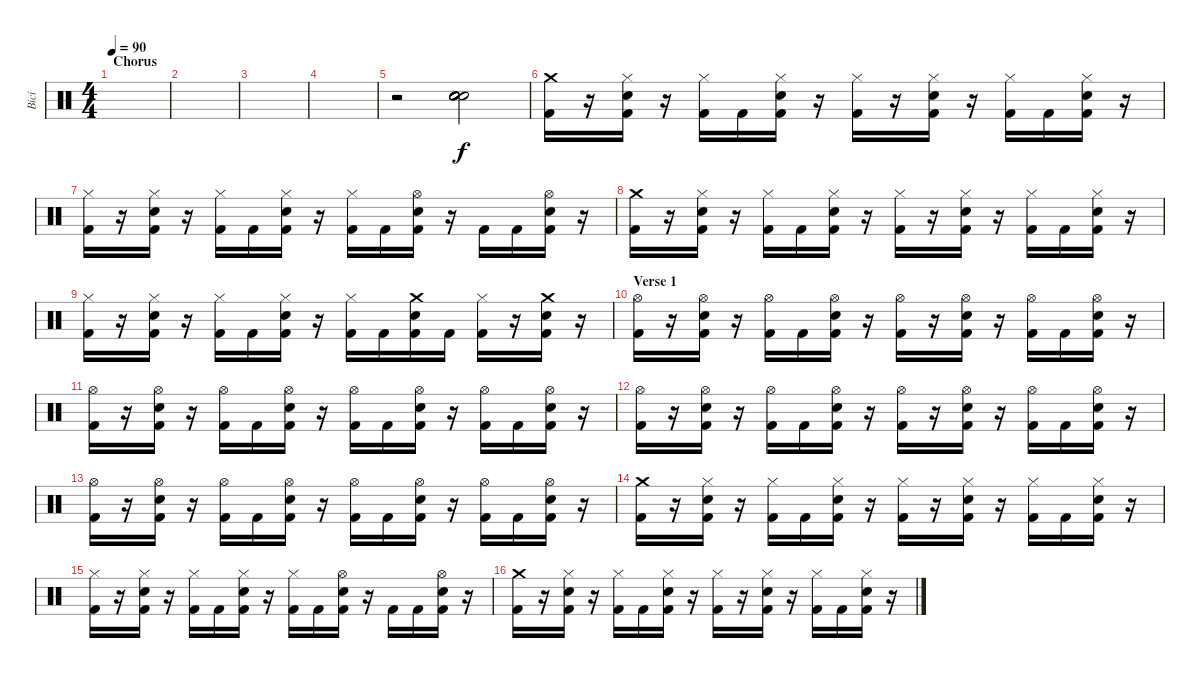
\track ("Bicí" "Bicí") {instrument percussion}
\staff {score}
\articulation defaults
\ts (4 4)
\section ("" "Chorus")
\tempo 90
\clef neutral
\ks c
|
|
|
|
r.2 ("Electric Snare (hit)" "Electric Snare (hit)" "Electric Snare (hit)" "Electric Snare (hit)" "Electric Snare (hit)" "Electric Snare (hit)").2 |
("Crash medium (hit)" "Kick (hit) 2").16 r.16 ("Hi-Hat (closed)" "Electric Snare (hit)" "Kick (hit) 2").16 r.16 ("Hi-Hat (closed)" "Kick (hit) 2").16 "Kick (hit) 2".16 ("Hi-Hat (closed)" "Electric Snare (hit)" "Kick (hit) 2").16 r.16 ("Hi-Hat (closed)" "Kick (hit) 2").16 r.16 ("Hi-Hat (closed)" "Electric Snare (hit)" "Kick (hit) 2").16 r.16 ("Hi-Hat (closed)" "Kick (hit) 2").16 "Kick (hit) 2".16 ("Hi-Hat (closed)" "Electric Snare (hit)" "Kick (hit) 2").16 r.16 |
("Hi-Hat (closed)" "Kick (hit) 2").16 r.16 ("Hi-Hat (closed)" "Electric Snare (hit)" "Kick (hit) 2").16 r.16 ("Hi-Hat (closed)" "Kick (hit) 2").16 "Kick (hit) 2".16 ("Hi-Hat (closed)" "Electric Snare (hit)" "Kick (hit) 2").16 r.16 ("Hi-Hat (closed)" "Kick (hit) 2").16 "Kick (hit) 2".16 ("Hi-Hat (open)" "Electric Snare (hit)" "Kick (hit) 2").16 r.16 "Kick (hit) 2".16 "Kick (hit) 2".16 ("Hi-Hat (open)" "Electric Snare (hit)" "Kick (hit) 2").16 r.16 |
("Crash medium (hit)" "Kick (hit) 2").16 r.16 ("Hi-Hat (closed)" "Electric Snare (hit)" "Kick (hit) 2").16 r.16 ("Hi-Hat (closed)" "Kick (hit) 2").16 "Kick (hit) 2".16 ("Hi-Hat (closed)" "Electric Snare (hit)" "Kick (hit) 2").16 r.16 ("Hi-Hat (closed)" "Kick (hit) 2").16 r.16 ("Hi-Hat (closed)" "Electric Snare (hit)" "Kick (hit) 2").16 r.16 ("Hi-Hat (closed)" "Kick (hit) 2").16 "Kick (hit) 2".16 ("Hi-Hat (closed)" "Electric Snare (hit)" "Kick (hit) 2").16 r.16 |
("Hi-Hat (closed)" "Kick (hit) 2").16 r.16 ("Hi-Hat (closed)" "Electric Snare (hit)" "Kick (hit) 2").16 r.16 ("Hi-Hat (closed)" "Kick (hit) 2").16 "Kick (hit) 2".16 ("Hi-Hat (closed)" "Electric Snare (hit)" "Kick (hit) 2").16 r.16 ("Hi-Hat (closed)" "Kick (hit) 2").16 "Kick (hit) 2".16 ("Crash medium (hit)" "Electric Snare (hit)" "Kick (hit) 2").16 "Kick (hit) 2".16 ("Hi-Hat (closed)" "Kick (hit) 2").16 r.16 ("Crash medium (hit)" "Electric Snare (hit)" "Kick (hit) 2").16 r.16 |
\section ("" "Verse 1")
("Hi-Hat (open)" "Kick (hit) 2").16 r.16 ("Hi-Hat (open)" "Electric Snare (hit)" "Kick (hit) 2").16 r.16 ("Hi-Hat (open)" "Kick (hit) 2").16 "Kick (hit) 2".16 ("Hi-Hat (open)" "Electric Snare (hit)" "Kick (hit) 2").16 r.16 ("Hi-Hat (open)" "Kick (hit) 2").16 r.16 ("Hi-Hat (open)" "Electric Snare (hit)" "Kick (hit) 2").16 r.16 ("Hi-Hat (open)" "Kick (hit) 2").16 "Kick (hit) 2".16 ("Hi-Hat (open)" "Electric Snare (hit)" "Kick (hit) 2").16 r.16 |
("Hi-Hat (open)" "Kick (hit) 2").16 r.16 ("Hi-Hat (open)" "Electric Snare (hit)" "Kick (hit) 2").16 r.16 ("Hi-Hat (open)" "Kick (hit) 2").16 "Kick (hit) 2".16 ("Hi-Hat (open)" "Electric Snare (hit)" "Kick (hit) 2").16 r.16 ("Hi-Hat (open)" "Kick (hit) 2").16 "Kick (hit) 2".16 ("Hi-Hat (open)" "Electric Snare (hit)" "Kick (hit) 2").16 r.16 ("Hi-Hat (open)" "Kick (hit) 2").16 "Kick (hit) 2".16 ("Hi-Hat (open)" "Electric Snare (hit)" "Kick (hit) 2").16 r.16 |
("Hi-Hat (open)" "Kick (hit) 2").16 r.16 ("Hi-Hat (open)" "Electric Snare (hit)" "Kick (hit) 2").16 r.16 ("Hi-Hat (open)" "Kick (hit) 2").16 "Kick (hit) 2".16 ("Hi-Hat (open)" "Electric Snare (hit)" "Kick (hit) 2").16 r.16 ("Hi-Hat (open)" "Kick (hit) 2").16 r.16 ("Hi-Hat (open)" "Electric Snare (hit)" "Kick (hit) 2").16 r.16 ("Hi-Hat (open)" "Kick (hit) 2").16 "Kick (hit) 2".16 ("Hi-Hat (open)" "Electric Snare (hit)" "Kick (hit) 2").16 r.16 |
("Hi-Hat (open)" "Kick (hit) 2").16 r.16 ("Hi-Hat (open)" "Electric Snare (hit)" "Kick (hit) 2").16 r.16 ("Hi-Hat (open)" "Kick (hit) 2").16 "Kick (hit) 2".16 ("Hi-Hat (open)" "Electric Snare (hit)" "Kick (hit) 2").16 r.16 ("Hi-Hat (open)" "Kick (hit) 2").16 "Kick (hit) 2".16 ("Hi-Hat (open)" "Electric Snare (hit)" "Kick (hit) 2").16 r.16 ("Hi-Hat (open)" "Kick (hit) 2").16 "Kick (hit) 2".16 ("Hi-Hat (open)" "Electric Snare (hit)" "Kick (hit) 2").16 r.16 |
("Crash medium (hit)" "Kick (hit) 2").16 r.16 ("Hi-Hat (closed)" "Electric Snare (hit)" "Kick (hit) 2").16 r.16 ("Hi-Hat (closed)" "Kick (hit) 2").16 "Kick (hit) 2".16 ("Hi-Hat (closed)" "Electric Snare (hit)" "Kick (hit) 2").16 r.16 ("Hi-Hat (closed)" "Kick (hit) 2").16 r.16 ("Hi-Hat (closed)" "Electric Snare (hit)" "Kick (hit) 2").16 r.16 ("Hi-Hat (closed)" "Kick (hit) 2").16 "Kick (hit) 2".16 ("Hi-Hat (closed)" "Electric Snare (hit)" "Kick (hit) 2").16 r.16 |
("Hi-Hat (closed)" "Kick (hit) 2").16 r.16 ("Hi-Hat (closed)" "Electric Snare (hit)" "Kick (hit) 2").16 r.16 ("Hi-Hat (closed)" "Kick (hit) 2").16 "Kick (hit) 2".16 ("Hi-Hat (closed)" "Electric Snare (hit)" "Kick (hit) 2").16 r.16 ("Hi-Hat (closed)" "Kick (hit) 2").16 "Kick (hit) 2".16 ("Hi-Hat (open)" "Electric Snare (hit)" "Kick (hit) 2").16 r.16 "Kick (hit) 2".16 "Kick (hit) 2".16 ("Hi-Hat (open)" "Electric Snare (hit)" "Kick (hit) 2").16 r.16 |
("Crash medium (hit)" "Kick (hit) 2").16 r.16 ("Hi-Hat (closed)" "Electric Snare (hit)" "Kick (hit) 2").16 r.16 ("Hi-Hat (closed)" "Kick (hit) 2").16 "Kick (hit) 2".16 ("Hi-Hat (closed)" "Electric Snare (hit)" "Kick (hit) 2").16 r.16 ("Hi-Hat (closed)" "Kick (hit) 2").16 r.16 ("Hi-Hat (closed)" "Electric Snare (hit)" "Kick (hit) 2").16 r.16 ("Hi-Hat (closed)" "Kick (hit) 2").16 "Kick (hit) 2".16 ("Hi-Hat (closed)" "Electric Snare (hit)" "Kick (hit) 2").16 r.16
